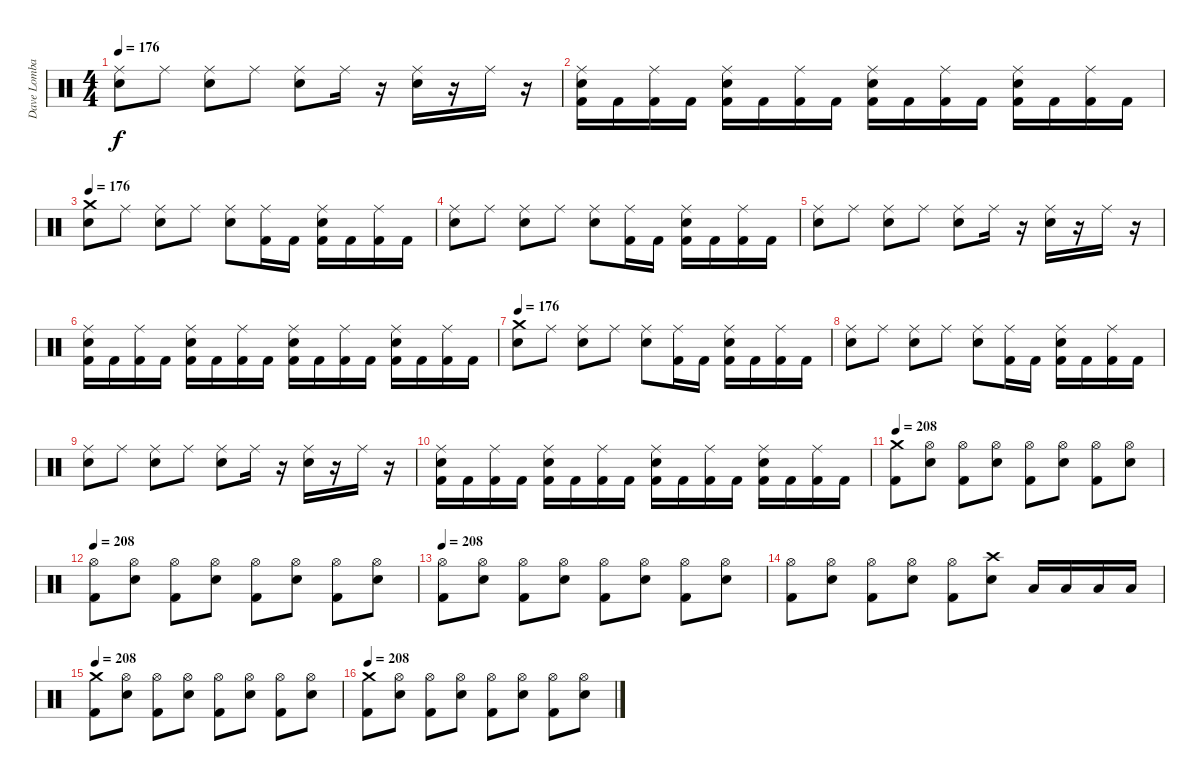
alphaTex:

\track ("Dave Lombardo" "Dave Lomba") {instrument percussion}
\staff {score}
\articulation defaults
\ts (4 4)
\tempo 176
\clef neutral
\ks c
("Electric Snare (hit)" "Ride (middle)").8{dy f} "Ride (middle)".8 ("Electric Snare (hit)" "Ride (middle)").8 "Ride (middle)".8 ("Electric Snare (hit)" "Ride (middle)").8 "Ride (middle)".16 r.16 ("Electric Snare (hit)" "Ride (middle)").16 r.16 "Ride (middle)".16 r.16 |
("Kick (hit) 2" "Electric Snare (hit)" "Ride (middle)").16 "Kick (hit) 2".16 ("Kick (hit) 2" "Ride (middle)").16 "Kick (hit) 2".16 ("Kick (hit) 2" "Electric Snare (hit)" "Ride (middle)").16 "Kick (hit) 2".16 ("Kick (hit) 2" "Ride (middle)").16 "Kick (hit) 2".16 ("Kick (hit) 2" "Electric Snare (hit)" "Ride (middle)").16 "Kick (hit) 2".16 ("Kick (hit) 2" "Ride (middle)").16 "Kick (hit) 2".16 ("Kick (hit) 2" "Electric Snare (hit)" "Ride (middle)").16 "Kick (hit) 2".16 ("Kick (hit) 2" "Ride (middle)").16 "Kick (hit) 2".16 |
\tempo 176
("Electric Snare (hit)" "Crash medium (hit)").8 "Ride (middle)".8 ("Electric Snare (hit)" "Ride (middle)").8 "Ride (middle)".8 ("Electric Snare (hit)" "Ride (middle)").8 ("Kick (hit) 2" "Ride (middle)").16 "Kick (hit) 2".16 ("Kick (hit) 2" "Electric Snare (hit)" "Ride (middle)").16 "Kick (hit) 2".16 ("Kick (hit) 2" "Ride (middle)").16 "Kick (hit) 2".16 |
("Electric Snare (hit)" "Ride (middle)").8 "Ride (middle)".8 ("Electric Snare (hit)" "Ride (middle)").8 "Ride (middle)".8 ("Electric Snare (hit)" "Ride (middle)").8 ("Kick (hit) 2" "Ride (middle)").16 "Kick (hit) 2".16 ("Kick (hit) 2" "Electric Snare (hit)" "Ride (middle)").16 "Kick (hit) 2".16 ("Kick (hit) 2" "Ride (middle)").16 "Kick (hit) 2".16 |
("Electric Snare (hit)" "Ride (middle)").8 "Ride (middle)".8 ("Electric Snare (hit)" "Ride (middle)").8 "Ride (middle)".8 ("Electric Snare (hit)" "Ride (middle)").8 "Ride (middle)".16 r.16 ("Electric Snare (hit)" "Ride (middle)").16 r.16 "Ride (middle)".16 r.16 |
("Kick (hit) 2" "Electric Snare (hit)" "Ride (middle)").16 "Kick (hit) 2".16 ("Kick (hit) 2" "Ride (middle)").16 "Kick (hit) 2".16 ("Kick (hit) 2" "Electric Snare (hit)" "Ride (middle)").16 "Kick (hit) 2".16 ("Kick (hit) 2" "Ride (middle)").16 "Kick (hit) 2".16 ("Kick (hit) 2" "Electric Snare (hit)" "Ride (middle)").16 "Kick (hit) 2".16 ("Kick (hit) 2" "Ride (middle)").16 "Kick (hit) 2".16 ("Kick (hit) 2" "Electric Snare (hit)" "Ride (middle)").16 "Kick (hit) 2".16 ("Kick (hit) 2" "Ride (middle)").16 "Kick (hit) 2".16 |
\tempo 176
("Electric Snare (hit)" "Crash medium (hit)").8 "Ride (middle)".8 ("Electric Snare (hit)" "Ride (middle)").8 "Ride (middle)".8 ("Electric Snare (hit)" "Ride (middle)").8 ("Kick (hit) 2" "Ride (middle)").16 "Kick (hit) 2".16 ("Kick (hit) 2" "Electric Snare (hit)" "Ride (middle)").16 "Kick (hit) 2".16 ("Kick (hit) 2" "Ride (middle)").16 "Kick (hit) 2".16 |
("Electric Snare (hit)" "Ride (middle)").8 "Ride (middle)".8 ("Electric Snare (hit)" "Ride (middle)").8 "Ride (middle)".8 ("Electric Snare (hit)" "Ride (middle)").8 ("Kick (hit) 2" "Ride (middle)").16 "Kick (hit) 2".16 ("Kick (hit) 2" "Electric Snare (hit)" "Ride (middle)").16 "Kick (hit) 2".16 ("Kick (hit) 2" "Ride (middle)").16 "Kick (hit) 2".16 |
("Electric Snare (hit)" "Ride (middle)").8 "Ride (middle)".8 ("Electric Snare (hit)" "Ride (middle)").8 "Ride (middle)".8 ("Electric Snare (hit)" "Ride (middle)").8 "Ride (middle)".16 r.16 ("Electric Snare (hit)" "Ride (middle)").16 r.16 "Ride (middle)".16 r.16 |
("Kick (hit) 2" "Electric Snare (hit)" "Ride (middle)").16 "Kick (hit) 2".16 ("Kick (hit) 2" "Ride (middle)").16 "Kick (hit) 2".16 ("Kick (hit) 2" "Electric Snare (hit)" "Ride (middle)").16 "Kick (hit) 2".16 ("Kick (hit) 2" "Ride (middle)").16 "Kick (hit) 2".16 ("Kick (hit) 2" "Electric Snare (hit)" "Ride (middle)").16 "Kick (hit) 2".16 ("Kick (hit) 2" "Ride (middle)").16 "Kick (hit) 2".16 ("Kick (hit) 2" "Electric Snare (hit)" "Ride (middle)").16 "Kick (hit) 2".16 ("Kick (hit) 2" "Ride (middle)").16 "Kick (hit) 2".16 |
\tempo 208
("Crash medium (hit)" "Kick (hit) 2").8 ("Electric Snare (hit)" "Hi-Hat (open)").8 ("Kick (hit) 2" "Hi-Hat (open)").8 ("Electric Snare (hit)" "Hi-Hat (open)").8 ("Kick (hit) 2" "Hi-Hat (open)").8 ("Electric Snare (hit)" "Hi-Hat (open)").8 ("Kick (hit) 2" "Hi-Hat (open)").8 ("Electric Snare (hit)" "Hi-Hat (open)").8 |
\tempo 208
("Hi-Hat (open)" "Kick (hit) 2").8 ("Electric Snare (hit)" "Hi-Hat (open)").8 ("Kick (hit) 2" "Hi-Hat (open)").8 ("Electric Snare (hit)" "Hi-Hat (open)").8 ("Kick (hit) 2" "Hi-Hat (open)").8 ("Electric Snare (hit)" "Hi-Hat (open)").8 ("Kick (hit) 2" "Hi-Hat (open)").8 ("Electric Snare (hit)" "Hi-Hat (open)").8 |
\tempo 208
("Hi-Hat (open)" "Kick (hit) 2").8 ("Electric Snare (hit)" "Hi-Hat (open)").8 ("Kick (hit) 2" "Hi-Hat (open)").8 ("Electric Snare (hit)" "Hi-Hat (open)").8 ("Kick (hit) 2" "Hi-Hat (open)").8 ("Electric Snare (hit)" "Hi-Hat (open)").8 ("Kick (hit) 2" "Hi-Hat (open)").8 ("Electric Snare (hit)" "Hi-Hat (open)").8 |
("Hi-Hat (open)" "Kick (hit) 2").8 ("Electric Snare (hit)" "Hi-Hat (open)").8 ("Kick (hit) 2" "Hi-Hat (open)").8 ("Electric Snare (hit)" "Hi-Hat (open)").8 ("Kick (hit) 2" "Hi-Hat (open)").8 ("Electric Snare (hit)" "Crash high (hit)").8 "Low Tom (hit)".16 "Low Tom (hit)".16 "Low Tom (hit)".16 "Low Tom (hit)".16 |
\tempo 208
("Crash medium (hit)" "Kick (hit) 2").8 ("Electric Snare (hit)" "Hi-Hat (open)").8 ("Kick (hit) 2" "Hi-Hat (open)").8 ("Electric Snare (hit)" "Hi-Hat (open)").8 ("Kick (hit) 2" "Hi-Hat (open)").8 ("Electric Snare (hit)" "Hi-Hat (open)").8 ("Kick (hit) 2" "Hi-Hat (open)").8 ("Electric Snare (hit)" "Hi-Hat (open)").8 |
\tempo 208
("Crash medium (hit)" "Kick (hit) 2").8 ("Electric Snare (hit)" "Hi-Hat (open)").8 ("Kick (hit) 2" "Hi-Hat (open)").8 ("Electric Snare (hit)" "Hi-Hat (open)").8 ("Kick (hit) 2" "Hi-Hat (open)").8 ("Electric Snare (hit)" "Hi-Hat (open)").8 ("Kick (hit) 2" "Hi-Hat (open)").8 ("Electric Snare (hit)" "Hi-Hat (open)").8
